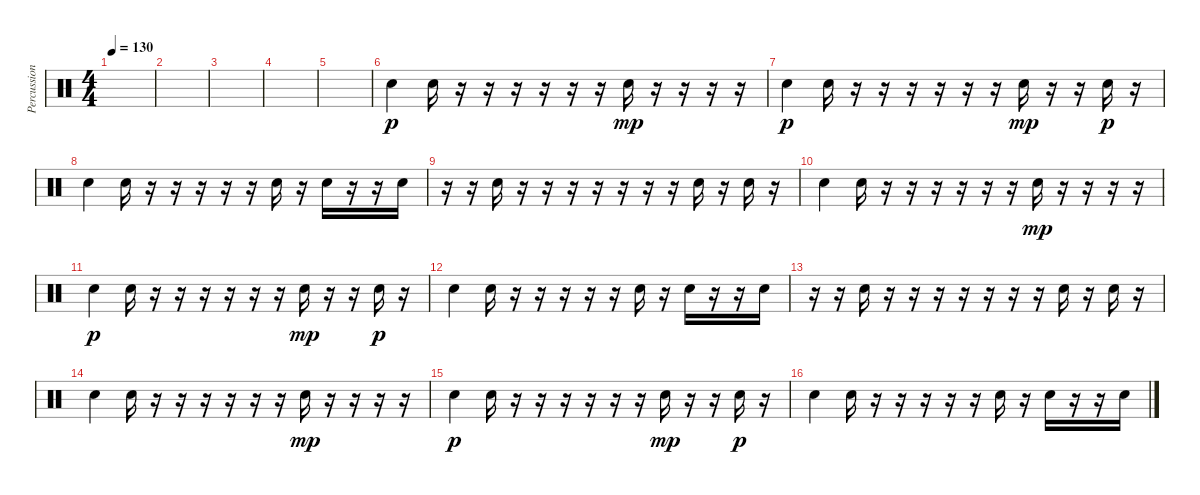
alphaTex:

\track ("Percussion" "Percussion") {instrument percussion}
\staff {score}
\articulation defaults
\ts (4 4)
\tempo 130
\clef neutral
\ks c
|
|
|
|
|
"Snare (hit) 2".4{dy p} "Snare (hit) 2".16 r.16 r.16 r.16 r.16 r.16 r.16 "Hand Clap (hit)".16{dy mp} r.16 r.16 r.16 r.16 |
"Snare (hit) 2".4{dy p} "Snare (hit) 2".16 r.16 r.16 r.16 r.16 r.16 r.16 "Hand Clap (hit)".16{dy mp} r.16 r.16 "Snare (hit) 2".16{dy p} r.16 |
"Snare (hit) 2".4 "Snare (hit) 2".16 r.16 r.16 r.16 r.16 r.16 "Snare (hit) 2".16 r.16 "Snare (hit) 2".16 r.16 r.16 "Snare (hit) 2".16 |
r.16 r.16 "Snare (hit) 2".16 r.16 r.16 r.16 r.16 r.16 r.16 r.16 "Snare (hit) 2".16 r.16 "Snare (hit) 2".16 r.16 |
"Snare (hit) 2".4 "Snare (hit) 2".16 r.16 r.16 r.16 r.16 r.16 r.16 "Hand Clap (hit)".16{dy mp} r.16 r.16 r.16 r.16 |
"Snare (hit) 2".4{dy p} "Snare (hit) 2".16 r.16 r.16 r.16 r.16 r.16 r.16 "Hand Clap (hit)".16{dy mp} r.16 r.16 "Snare (hit) 2".16{dy p} r.16 |
"Snare (hit) 2".4 "Snare (hit) 2".16 r.16 r.16 r.16 r.16 r.16 "Snare (hit) 2".16 r.16 "Snare (hit) 2".16 r.16 r.16 "Snare (hit) 2".16 |
r.16 r.16 "Snare (hit) 2".16 r.16 r.16 r.16 r.16 r.16 r.16 r.16 "Snare (hit) 2".16 r.16 "Snare (hit) 2".16 r.16 |
"Snare (hit) 2".4 "Snare (hit) 2".16 r.16 r.16 r.16 r.16 r.16 r.16 "Hand Clap (hit)".16{dy mp} r.16 r.16 r.16 r.16 |
"Snare (hit) 2".4{dy p} "Snare (hit) 2".16 r.16 r.16 r.16 r.16 r.16 r.16 "Hand Clap (hit)".16{dy mp} r.16 r.16 "Snare (hit) 2".16{dy p} r.16 |
"Snare (hit) 2".4 "Snare (hit) 2".16 r.16 r.16 r.16 r.16 r.16 "Snare (hit) 2".16 r.16 "Snare (hit) 2".16 r.16 r.16 "Snare (hit) 2".16
